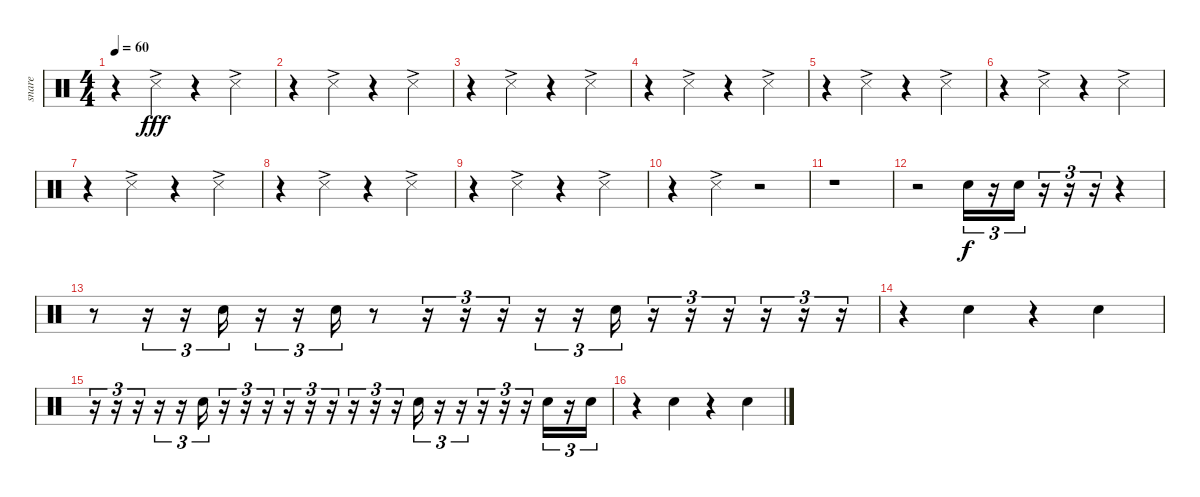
\track ("snare" "snare") {instrument percussion}
\staff {score}
\articulation defaults
\ts (4 4)
\tempo 60
\clef neutral
\ks c
r.4{dy fff} "Snare (side stick) 3"{ac}.4 r.4 "Snare (side stick) 3"{ac}.4 |
r.4 "Snare (side stick) 3"{ac}.4 r.4 "Snare (side stick) 3"{ac}.4 |
r.4 "Snare (side stick) 3"{ac}.4 r.4 "Snare (side stick) 3"{ac}.4 |
r.4 "Snare (side stick) 3"{ac}.4 r.4 "Snare (side stick) 3"{ac}.4 |
r.4 "Snare (side stick) 3"{ac}.4 r.4 "Snare (side stick) 3"{ac}.4 |
r.4 "Snare (side stick) 3"{ac}.4 r.4 "Snare (side stick) 3"{ac}.4 |
r.4 "Snare (side stick) 3"{ac}.4 r.4 "Snare (side stick) 3"{ac}.4 |
r.4 "Snare (side stick) 3"{ac}.4 r.4 "Snare (side stick) 3"{ac}.4 |
r.4 "Snare (side stick) 3"{ac}.4 r.4 "Snare (side stick) 3"{ac}.4 |
r.4 "Snare (side stick) 3"{ac}.4 r.2 |
r.1 |
r.2 "Snare (hit) 2".16{tu (3 2) dy f} r.16{tu (3 2)} "Snare (hit) 2".16{tu (3 2)} r.16{tu (3 2)} r.16{tu (3 2)} r.16{tu (3 2)} r.4 |
r.8 r.16{tu (3 2)} r.16{tu (3 2)} "Snare (hit) 2".16{tu (3 2)} r.16{tu (3 2)} r.16{tu (3 2)} "Snare (hit) 2".16{tu (3 2)} r.8 r.16{tu (3 2)} r.16{tu (3 2)} r.16{tu (3 2)} r.16{tu (3 2)} r.16{tu (3 2)} "Snare (hit) 2".16{tu (3 2)} r.16{tu (3 2)} r.16{tu (3 2)} r.16{tu (3 2)} r.16{tu (3 2)} r.16{tu (3 2)} r.16{tu (3 2)} |
r.4 "Snare (hit) 2".4 r.4 "Snare (hit) 2".4 |
r.16{tu (3 2)} r.16{tu (3 2)} r.16{tu (3 2)} r.16{tu (3 2)} r.16{tu (3 2)} "Snare (hit) 2".16{tu (3 2)} r.16{tu (3 2)} r.16{tu (3 2)} r.16{tu (3 2)} r.16{tu (3 2)} r.16{tu (3 2)} r.16{tu (3 2)} r.16{tu (3 2)} r.16{tu (3 2)} r.16{tu (3 2)} "Snare (hit) 2".16{tu (3 2)} r.16{tu (3 2)} r.16{tu (3 2)} r.16{tu (3 2)} r.16{tu (3 2)} r.16{tu (3 2)} "Snare (hit) 2".16{tu (3 2)} r.16{tu (3 2)} "Snare (hit) 2".16{tu (3 2)} |
r.4 "Snare (hit) 2".4 r.4 "Snare (hit) 2".4
